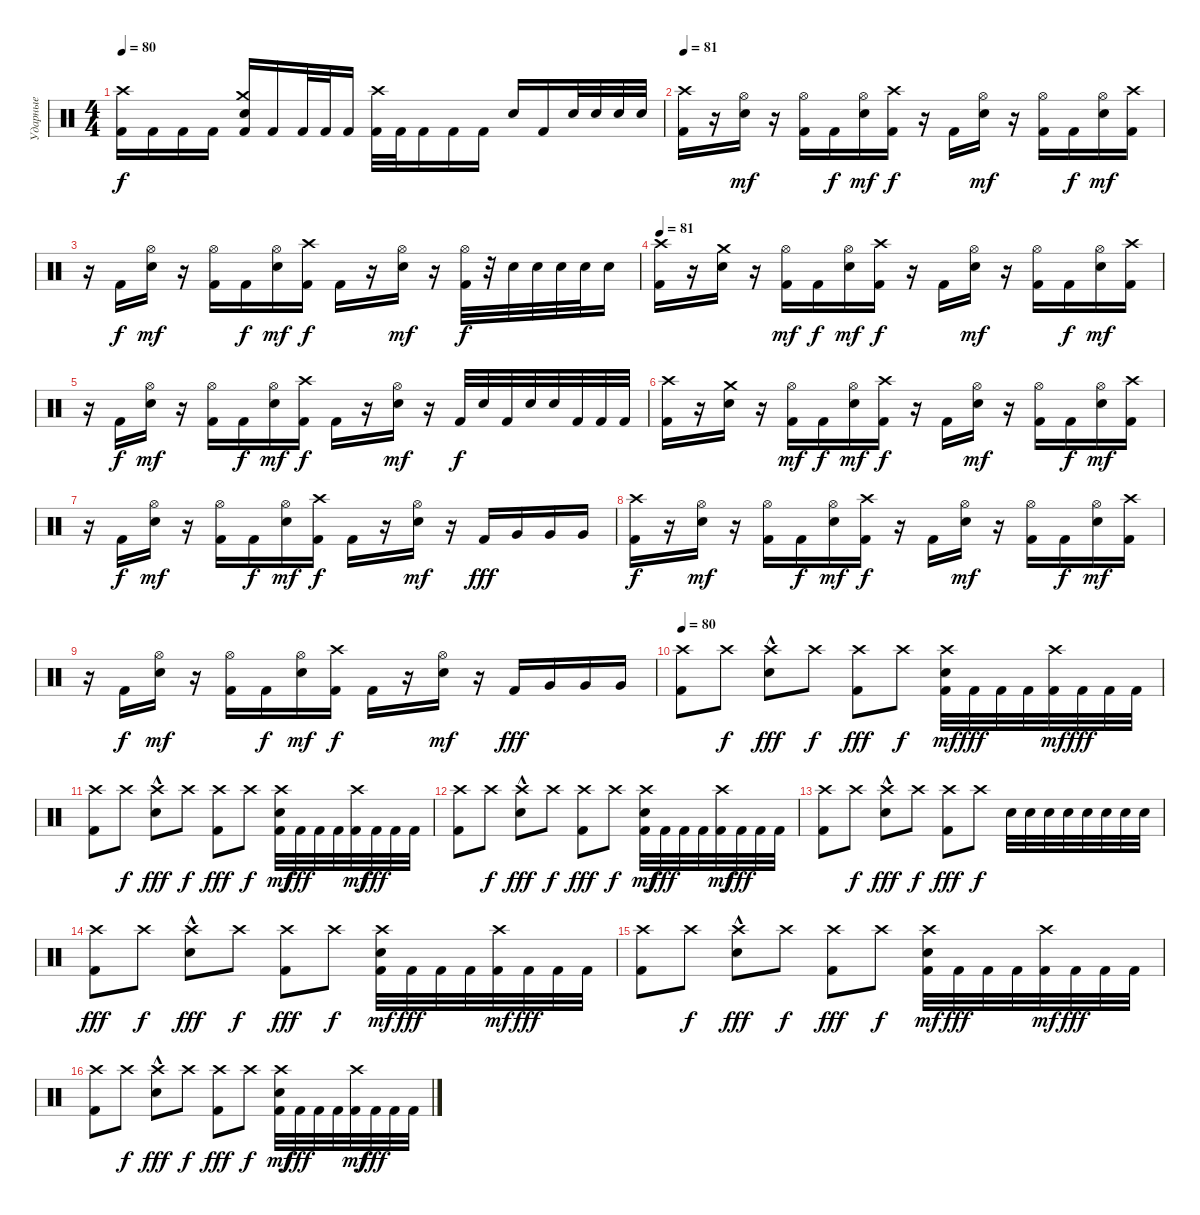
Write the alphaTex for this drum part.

\track ("Ударные" "Ударные") {instrument percussion}
\staff {score}
\articulation defaults
\ts (4 4)
\tempo 80
\clef neutral
\ks c
("Kick (hit) 2" "Crash high (hit)").16{dy f balance 16} "Kick (hit) 2".16{balance 8} "Kick (hit) 2".16 "Kick (hit) 2".16 ("Kick (hit) 2" "Crash medium (hit)" "Electric Snare (hit)").16{balance 0} "Kick (hit) 2".16 "Kick (hit) 2".32{balance 0} "Kick (hit) 2".32 "Kick (hit) 2".16 ("Kick (hit) 2" "Crash high (hit)").32 "Kick (hit) 2".32 "Kick (hit) 2".16 "Kick (hit) 2".16 "Kick (hit) 2".16 "Electric Snare (hit)".16 "Kick (hit) 2".16 "Electric Snare (hit)".32 "Electric Snare (hit)".32 "Electric Snare (hit)".32 "Electric Snare (hit)".32 |
\tempo 81
("Kick (hit) 2" "Crash high (hit)").16 r.16 ("Electric Snare (hit)" "Hi-Hat (open)").16{dy mf} r.16 ("Kick (hit) 2" "Hi-Hat (open)").16 "Kick (hit) 2".16{dy f} ("Electric Snare (hit)" "Hi-Hat (open)").16{dy mf} ("Crash high (hit)" "Kick (hit) 2").16{dy f} r.16 "Kick (hit) 2".16 ("Electric Snare (hit)" "Hi-Hat (open)").16{dy mf} r.16 ("Kick (hit) 2" "Hi-Hat (open)").16 "Kick (hit) 2".16{dy f} ("Electric Snare (hit)" "Hi-Hat (open)").16{dy mf} ("Crash high (hit)" "Kick (hit) 2").16 |
r.16 "Kick (hit) 2".16{dy f} ("Electric Snare (hit)" "Hi-Hat (open)").16{dy mf} r.16 ("Kick (hit) 2" "Hi-Hat (open)").16 "Kick (hit) 2".16{dy f} ("Electric Snare (hit)" "Hi-Hat (open)").16{dy mf} ("Crash high (hit)" "Kick (hit) 2").16{dy f} "Kick (hit) 2".16 r.16 ("Electric Snare (hit)" "Hi-Hat (open)").16{dy mf} r.16 ("Hi-Hat (open)" "Kick (hit) 2").32{dy f} r.32 "Electric Snare (hit)".32 "Electric Snare (hit)".32 "Electric Snare (hit)".32 "Electric Snare (hit)".32 "Electric Snare (hit)".16 |
\tempo 81
("Kick (hit) 2" "Crash high (hit)").16 r.16 ("Electric Snare (hit)" "Crash medium (hit)").16 r.16 ("Kick (hit) 2" "Hi-Hat (open)").16{dy mf} "Kick (hit) 2".16{dy f} ("Electric Snare (hit)" "Hi-Hat (open)").16{dy mf} ("Crash high (hit)" "Kick (hit) 2").16{dy f} r.16 "Kick (hit) 2".16 ("Electric Snare (hit)" "Hi-Hat (open)").16{dy mf} r.16 ("Kick (hit) 2" "Hi-Hat (open)").16 "Kick (hit) 2".16{dy f} ("Electric Snare (hit)" "Hi-Hat (open)").16{dy mf} ("Crash high (hit)" "Kick (hit) 2").16 |
r.16 "Kick (hit) 2".16{dy f} ("Electric Snare (hit)" "Hi-Hat (open)").16{dy mf} r.16 ("Kick (hit) 2" "Hi-Hat (open)").16 "Kick (hit) 2".16{dy f} ("Electric Snare (hit)" "Hi-Hat (open)").16{dy mf} ("Crash high (hit)" "Kick (hit) 2").16{dy f} "Kick (hit) 2".16 r.16 ("Electric Snare (hit)" "Hi-Hat (open)").16{dy mf} r.16 "Kick (hit) 2".32{dy f} "Electric Snare (hit)".32 "Kick (hit) 2".32 "Electric Snare (hit)".32 "Electric Snare (hit)".32 "Kick (hit) 2".32 "Kick (hit) 2".32 "Kick (hit) 2".32 |
("Kick (hit) 2" "Crash high (hit)").16 r.16 ("Electric Snare (hit)" "Crash medium (hit)").16 r.16 ("Kick (hit) 2" "Hi-Hat (open)").16{dy mf} "Kick (hit) 2".16{dy f} ("Electric Snare (hit)" "Hi-Hat (open)").16{dy mf} ("Crash high (hit)" "Kick (hit) 2").16{dy f} r.16 "Kick (hit) 2".16 ("Electric Snare (hit)" "Hi-Hat (open)").16{dy mf} r.16 ("Kick (hit) 2" "Hi-Hat (open)").16 "Kick (hit) 2".16{dy f} ("Electric Snare (hit)" "Hi-Hat (open)").16{dy mf} ("Crash high (hit)" "Kick (hit) 2").16 |
r.16 "Kick (hit) 2".16{dy f} ("Electric Snare (hit)" "Hi-Hat (open)").16{dy mf} r.16 ("Kick (hit) 2" "Hi-Hat (open)").16 "Kick (hit) 2".16{dy f} ("Electric Snare (hit)" "Hi-Hat (open)").16{dy mf} ("Crash high (hit)" "Kick (hit) 2").16{dy f} "Kick (hit) 2".16 r.16 ("Electric Snare (hit)" "Hi-Hat (open)").16{dy mf} r.16 "Kick (hit) 2".16{dy fff} "Very Low Tom (hit)".16 "Very Low Tom (hit)".16 "Very Low Tom (hit)".16 |
("Kick (hit) 2" "Crash high (hit)").16{dy f} r.16 ("Electric Snare (hit)" "Hi-Hat (open)").16{dy mf} r.16 ("Kick (hit) 2" "Hi-Hat (open)").16 "Kick (hit) 2".16{dy f} ("Electric Snare (hit)" "Hi-Hat (open)").16{dy mf} ("Crash high (hit)" "Kick (hit) 2").16{dy f} r.16 "Kick (hit) 2".16 ("Electric Snare (hit)" "Hi-Hat (open)").16{dy mf} r.16 ("Kick (hit) 2" "Hi-Hat (open)").16 "Kick (hit) 2".16{dy f} ("Electric Snare (hit)" "Hi-Hat (open)").16{dy mf} ("Crash high (hit)" "Kick (hit) 2").16 |
r.16 "Kick (hit) 2".16{dy f} ("Electric Snare (hit)" "Hi-Hat (open)").16{dy mf} r.16 ("Kick (hit) 2" "Hi-Hat (open)").16 "Kick (hit) 2".16{dy f} ("Electric Snare (hit)" "Hi-Hat (open)").16{dy mf} ("Crash high (hit)" "Kick (hit) 2").16{dy f} "Kick (hit) 2".16 r.16 ("Electric Snare (hit)" "Hi-Hat (open)").16{dy mf} r.16 "Kick (hit) 2".16{dy fff} "Very Low Tom (hit)".16 "Very Low Tom (hit)".16 "Very Low Tom (hit)".16 |
\tempo 80
("Crash high (hit)" "Kick (hit) 2").8 "Crash high (hit)".8{dy f} ("Crash high (hit)" "Electric Snare (hit)"{hac}).8{dy fff} "Crash high (hit)".8{dy f} ("Crash high (hit)" "Kick (hit) 2").8{dy fff} "Crash high (hit)".8{dy f} ("Electric Snare (hit)" "Kick (hit) 2" "Crash high (hit)").32{dy mf} "Kick (hit) 2".32{dy fff} "Kick (hit) 2".32 "Kick (hit) 2".32 ("Kick (hit) 2" "Crash high (hit)").32{dy mf} "Kick (hit) 2".32{dy fff} "Kick (hit) 2".32 "Kick (hit) 2".32 |
("Crash high (hit)" "Kick (hit) 2").8 "Crash high (hit)".8{dy f} ("Crash high (hit)" "Electric Snare (hit)"{hac}).8{dy fff} "Crash high (hit)".8{dy f} ("Crash high (hit)" "Kick (hit) 2").8{dy fff} "Crash high (hit)".8{dy f} ("Electric Snare (hit)" "Kick (hit) 2" "Crash high (hit)").32{dy mf} "Kick (hit) 2".32{dy fff} "Kick (hit) 2".32 "Kick (hit) 2".32 ("Kick (hit) 2" "Crash high (hit)").32{dy mf} "Kick (hit) 2".32{dy fff} "Kick (hit) 2".32 "Kick (hit) 2".32 |
("Crash high (hit)" "Kick (hit) 2").8 "Crash high (hit)".8{dy f} ("Crash high (hit)" "Electric Snare (hit)"{hac}).8{dy fff} "Crash high (hit)".8{dy f} ("Crash high (hit)" "Kick (hit) 2").8{dy fff} "Crash high (hit)".8{dy f} ("Electric Snare (hit)" "Kick (hit) 2" "Crash high (hit)").32{dy mf} "Kick (hit) 2".32{dy fff} "Kick (hit) 2".32 "Kick (hit) 2".32 ("Kick (hit) 2" "Crash high (hit)").32{dy mf} "Kick (hit) 2".32{dy fff} "Kick (hit) 2".32 "Kick (hit) 2".32 |
("Crash high (hit)" "Kick (hit) 2").8 "Crash high (hit)".8{dy f} ("Crash high (hit)" "Electric Snare (hit)"{hac}).8{dy fff} "Crash high (hit)".8{dy f} ("Crash high (hit)" "Kick (hit) 2").8{dy fff} "Crash high (hit)".8{dy f} "Electric Snare (hit)".32 "Electric Snare (hit)".32 "Electric Snare (hit)".32 "Electric Snare (hit)".32 "Electric Snare (hit)".32 "Electric Snare (hit)".32 "Electric Snare (hit)".32 "Electric Snare (hit)".32 |
("Crash high (hit)" "Kick (hit) 2").8{dy fff} "Crash high (hit)".8{dy f} ("Crash high (hit)" "Electric Snare (hit)"{hac}).8{dy fff} "Crash high (hit)".8{dy f} ("Crash high (hit)" "Kick (hit) 2").8{dy fff} "Crash high (hit)".8{dy f} ("Electric Snare (hit)" "Kick (hit) 2" "Crash high (hit)").32{dy mf} "Kick (hit) 2".32{dy fff} "Kick (hit) 2".32 "Kick (hit) 2".32 ("Kick (hit) 2" "Crash high (hit)").32{dy mf} "Kick (hit) 2".32{dy fff} "Kick (hit) 2".32 "Kick (hit) 2".32 |
("Crash high (hit)" "Kick (hit) 2").8 "Crash high (hit)".8{dy f} ("Crash high (hit)" "Electric Snare (hit)"{hac}).8{dy fff} "Crash high (hit)".8{dy f} ("Crash high (hit)" "Kick (hit) 2").8{dy fff} "Crash high (hit)".8{dy f} ("Electric Snare (hit)" "Kick (hit) 2" "Crash high (hit)").32{dy mf} "Kick (hit) 2".32{dy fff} "Kick (hit) 2".32 "Kick (hit) 2".32 ("Kick (hit) 2" "Crash high (hit)").32{dy mf} "Kick (hit) 2".32{dy fff} "Kick (hit) 2".32 "Kick (hit) 2".32 |
("Crash high (hit)" "Kick (hit) 2").8 "Crash high (hit)".8{dy f} ("Crash high (hit)" "Electric Snare (hit)"{hac}).8{dy fff} "Crash high (hit)".8{dy f} ("Crash high (hit)" "Kick (hit) 2").8{dy fff} "Crash high (hit)".8{dy f} ("Electric Snare (hit)" "Kick (hit) 2" "Crash high (hit)").32{dy mf} "Kick (hit) 2".32{dy fff} "Kick (hit) 2".32 "Kick (hit) 2".32 ("Kick (hit) 2" "Crash high (hit)").32{dy mf} "Kick (hit) 2".32{dy fff} "Kick (hit) 2".32 "Kick (hit) 2".32
